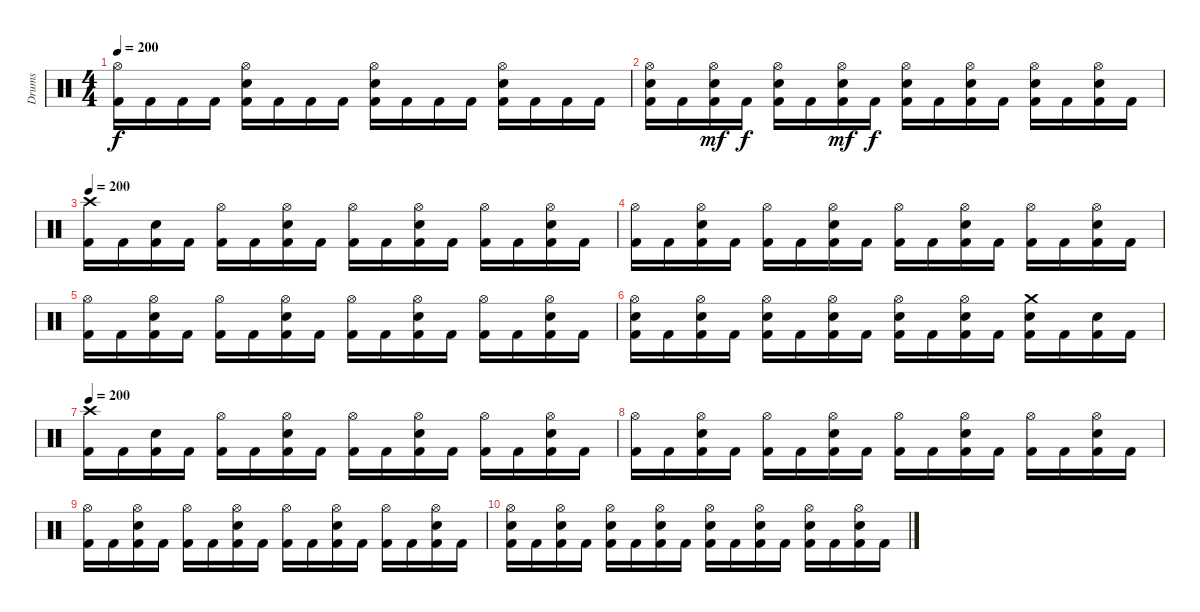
\track ("Drums" "Drums") {instrument percussion}
\staff {score}
\articulation defaults
\ts (4 4)
\tempo 200
\clef neutral
\ks c
("Hi-Hat (open)" "Kick (hit) 2").16{dy f} "Kick (hit) 2".16 "Kick (hit) 2".16 "Kick (hit) 2".16 ("Hi-Hat (open)" "Electric Snare (hit)" "Kick (hit) 2").16 "Kick (hit) 2".16 "Kick (hit) 2".16 "Kick (hit) 2".16 ("Hi-Hat (open)" "Electric Snare (hit)" "Kick (hit) 2").16 "Kick (hit) 2".16 "Kick (hit) 2".16 "Kick (hit) 2".16 ("Hi-Hat (open)" "Electric Snare (hit)" "Kick (hit) 2").16 "Kick (hit) 2".16 "Kick (hit) 2".16 "Kick (hit) 2".16 |
("Hi-Hat (open)" "Electric Snare (hit)" "Kick (hit) 2").16 "Kick (hit) 2".16 ("Hi-Hat (open)" "Electric Snare (hit)" "Kick (hit) 2").16{dy mf} "Kick (hit) 2".16{dy f} ("Hi-Hat (open)" "Electric Snare (hit)" "Kick (hit) 2").16 "Kick (hit) 2".16 ("Hi-Hat (open)" "Electric Snare (hit)" "Kick (hit) 2").16{dy mf} "Kick (hit) 2".16{dy f} ("Hi-Hat (open)" "Electric Snare (hit)" "Kick (hit) 2").16 "Kick (hit) 2".16 ("Hi-Hat (open)" "Electric Snare (hit)" "Kick (hit) 2").16 "Kick (hit) 2".16 ("Hi-Hat (open)" "Electric Snare (hit)" "Kick (hit) 2").16 "Kick (hit) 2".16 ("Hi-Hat (open)" "Electric Snare (hit)" "Kick (hit) 2").16 "Kick (hit) 2".16 |
\tempo 200
("Crash high (hit)" "Kick (hit) 2").16{volume 14} "Kick (hit) 2".16 ("Electric Snare (hit)" "Kick (hit) 2").16 "Kick (hit) 2".16 ("Hi-Hat (open)" "Kick (hit) 2").16 "Kick (hit) 2".16 ("Hi-Hat (open)" "Electric Snare (hit)" "Kick (hit) 2").16 "Kick (hit) 2".16 ("Hi-Hat (open)" "Kick (hit) 2").16 "Kick (hit) 2".16 ("Hi-Hat (open)" "Electric Snare (hit)" "Kick (hit) 2").16 "Kick (hit) 2".16 ("Hi-Hat (open)" "Kick (hit) 2").16 "Kick (hit) 2".16 ("Hi-Hat (open)" "Electric Snare (hit)" "Kick (hit) 2").16 "Kick (hit) 2".16 |
("Hi-Hat (open)" "Kick (hit) 2").16{volume 12} "Kick (hit) 2".16 ("Hi-Hat (open)" "Electric Snare (hit)" "Kick (hit) 2").16 "Kick (hit) 2".16 ("Hi-Hat (open)" "Kick (hit) 2").16 "Kick (hit) 2".16 ("Hi-Hat (open)" "Electric Snare (hit)" "Kick (hit) 2").16 "Kick (hit) 2".16 ("Hi-Hat (open)" "Kick (hit) 2").16 "Kick (hit) 2".16 ("Hi-Hat (open)" "Electric Snare (hit)" "Kick (hit) 2").16 "Kick (hit) 2".16 ("Hi-Hat (open)" "Kick (hit) 2").16 "Kick (hit) 2".16 ("Hi-Hat (open)" "Electric Snare (hit)" "Kick (hit) 2").16 "Kick (hit) 2".16 |
("Hi-Hat (open)" "Kick (hit) 2").16{volume 10} "Kick (hit) 2".16 ("Hi-Hat (open)" "Electric Snare (hit)" "Kick (hit) 2").16 "Kick (hit) 2".16 ("Hi-Hat (open)" "Kick (hit) 2").16 "Kick (hit) 2".16 ("Hi-Hat (open)" "Electric Snare (hit)" "Kick (hit) 2").16 "Kick (hit) 2".16 ("Hi-Hat (open)" "Kick (hit) 2").16 "Kick (hit) 2".16 ("Hi-Hat (open)" "Electric Snare (hit)" "Kick (hit) 2").16 "Kick (hit) 2".16 ("Hi-Hat (open)" "Kick (hit) 2").16 "Kick (hit) 2".16 ("Hi-Hat (open)" "Electric Snare (hit)" "Kick (hit) 2").16 "Kick (hit) 2".16 |
("Hi-Hat (open)" "Electric Snare (hit)" "Kick (hit) 2").16{volume 8} "Kick (hit) 2".16 ("Hi-Hat (open)" "Electric Snare (hit)" "Kick (hit) 2").16 "Kick (hit) 2".16 ("Hi-Hat (open)" "Electric Snare (hit)" "Kick (hit) 2").16 "Kick (hit) 2".16 ("Hi-Hat (open)" "Electric Snare (hit)" "Kick (hit) 2").16 "Kick (hit) 2".16 ("Hi-Hat (open)" "Electric Snare (hit)" "Kick (hit) 2").16 "Kick (hit) 2".16 ("Hi-Hat (open)" "Electric Snare (hit)" "Kick (hit) 2").16 "Kick (hit) 2".16 ("Crash medium (hit)" "Electric Snare (hit)" "Kick (hit) 2").16 "Kick (hit) 2".16 ("Electric Snare (hit)" "Kick (hit) 2").16 "Kick (hit) 2".16 |
\tempo 200
("Crash high (hit)" "Kick (hit) 2").16{volume 6} "Kick (hit) 2".16 ("Electric Snare (hit)" "Kick (hit) 2").16 "Kick (hit) 2".16 ("Hi-Hat (open)" "Kick (hit) 2").16 "Kick (hit) 2".16 ("Hi-Hat (open)" "Electric Snare (hit)" "Kick (hit) 2").16 "Kick (hit) 2".16 ("Hi-Hat (open)" "Kick (hit) 2").16 "Kick (hit) 2".16 ("Hi-Hat (open)" "Electric Snare (hit)" "Kick (hit) 2").16 "Kick (hit) 2".16 ("Hi-Hat (open)" "Kick (hit) 2").16 "Kick (hit) 2".16 ("Hi-Hat (open)" "Electric Snare (hit)" "Kick (hit) 2").16 "Kick (hit) 2".16 |
("Hi-Hat (open)" "Kick (hit) 2").16{volume 4} "Kick (hit) 2".16 ("Hi-Hat (open)" "Electric Snare (hit)" "Kick (hit) 2").16 "Kick (hit) 2".16 ("Hi-Hat (open)" "Kick (hit) 2").16 "Kick (hit) 2".16 ("Hi-Hat (open)" "Electric Snare (hit)" "Kick (hit) 2").16 "Kick (hit) 2".16 ("Hi-Hat (open)" "Kick (hit) 2").16 "Kick (hit) 2".16 ("Hi-Hat (open)" "Electric Snare (hit)" "Kick (hit) 2").16 "Kick (hit) 2".16 ("Hi-Hat (open)" "Kick (hit) 2").16 "Kick (hit) 2".16 ("Hi-Hat (open)" "Electric Snare (hit)" "Kick (hit) 2").16 "Kick (hit) 2".16 |
("Hi-Hat (open)" "Kick (hit) 2").16{volume 0} "Kick (hit) 2".16 ("Hi-Hat (open)" "Electric Snare (hit)" "Kick (hit) 2").16 "Kick (hit) 2".16 ("Hi-Hat (open)" "Kick (hit) 2").16 "Kick (hit) 2".16 ("Hi-Hat (open)" "Electric Snare (hit)" "Kick (hit) 2").16 "Kick (hit) 2".16 ("Hi-Hat (open)" "Kick (hit) 2").16 "Kick (hit) 2".16 ("Hi-Hat (open)" "Electric Snare (hit)" "Kick (hit) 2").16 "Kick (hit) 2".16 ("Hi-Hat (open)" "Kick (hit) 2").16 "Kick (hit) 2".16 ("Hi-Hat (open)" "Electric Snare (hit)" "Kick (hit) 2").16 "Kick (hit) 2".16 |
("Hi-Hat (open)" "Electric Snare (hit)" "Kick (hit) 2").16 "Kick (hit) 2".16 ("Hi-Hat (open)" "Electric Snare (hit)" "Kick (hit) 2").16 "Kick (hit) 2".16 ("Hi-Hat (open)" "Electric Snare (hit)" "Kick (hit) 2").16 "Kick (hit) 2".16 ("Hi-Hat (open)" "Electric Snare (hit)" "Kick (hit) 2").16 "Kick (hit) 2".16 ("Hi-Hat (open)" "Electric Snare (hit)" "Kick (hit) 2").16 "Kick (hit) 2".16 ("Hi-Hat (open)" "Electric Snare (hit)" "Kick (hit) 2").16 "Kick (hit) 2".16 ("Hi-Hat (open)" "Electric Snare (hit)" "Kick (hit) 2").16 "Kick (hit) 2".16 ("Hi-Hat (open)" "Electric Snare (hit)" "Kick (hit) 2").16 "Kick (hit) 2".16
